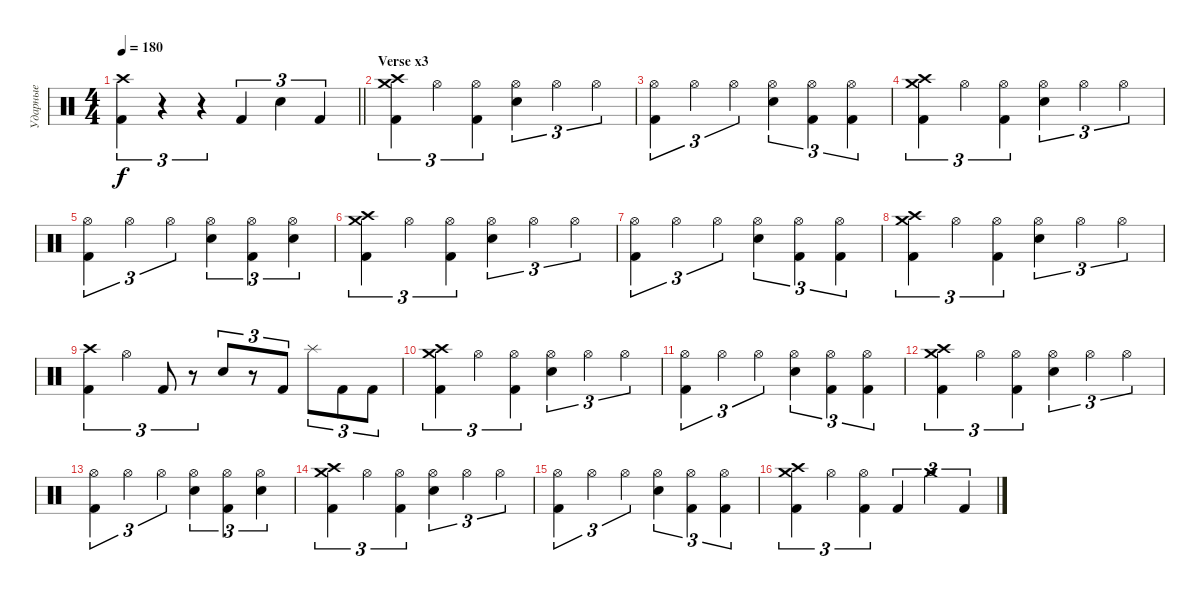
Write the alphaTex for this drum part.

\track ("Ударные" "Ударные") {instrument percussion}
\staff {score}
\articulation defaults
\ts (4 4)
\tempo 180
\clef neutral
\barLineRight lightlight
\ks c
("Crash high (hit)" "Kick (hit) 2").4{tu (3 2) dy f} r.4{tu (3 2)} r.4{tu (3 2)} "Kick (hit) 2".4{tu (3 2)} "Electric Snare (hit)".4{tu (3 2)} "Kick (hit) 2".4{tu (3 2)} |
\section ("" "Verse x3")
("Crash medium (hit)" "Crash high (hit)" "Kick (hit) 2").4{tu (3 2)} "Hi-Hat (open)".4{tu (3 2)} ("Hi-Hat (open)" "Kick (hit) 2").4{tu (3 2)} ("Hi-Hat (open)" "Electric Snare (hit)").4{tu (3 2)} "Hi-Hat (open)".4{tu (3 2)} "Hi-Hat (open)".4{tu (3 2)} |
("Hi-Hat (open)" "Kick (hit) 2").4{tu (3 2)} "Hi-Hat (open)".4{tu (3 2)} "Hi-Hat (open)".4{tu (3 2)} ("Hi-Hat (open)" "Electric Snare (hit)").4{tu (3 2)} ("Hi-Hat (open)" "Kick (hit) 2").4{tu (3 2)} ("Hi-Hat (open)" "Kick (hit) 2").4{tu (3 2)} |
("Crash medium (hit)" "Crash high (hit)" "Kick (hit) 2").4{tu (3 2)} "Hi-Hat (open)".4{tu (3 2)} ("Hi-Hat (open)" "Kick (hit) 2").4{tu (3 2)} ("Hi-Hat (open)" "Electric Snare (hit)").4{tu (3 2)} "Hi-Hat (open)".4{tu (3 2)} "Hi-Hat (open)".4{tu (3 2)} |
("Hi-Hat (open)" "Kick (hit) 2").4{tu (3 2)} "Hi-Hat (open)".4{tu (3 2)} "Hi-Hat (open)".4{tu (3 2)} ("Hi-Hat (open)" "Electric Snare (hit)").4{tu (3 2)} ("Hi-Hat (open)" "Kick (hit) 2").4{tu (3 2)} ("Hi-Hat (open)" "Electric Snare (hit)").4{tu (3 2)} |
("Crash medium (hit)" "Crash high (hit)" "Kick (hit) 2").4{tu (3 2)} "Hi-Hat (open)".4{tu (3 2)} ("Hi-Hat (open)" "Kick (hit) 2").4{tu (3 2)} ("Hi-Hat (open)" "Electric Snare (hit)").4{tu (3 2)} "Hi-Hat (open)".4{tu (3 2)} "Hi-Hat (open)".4{tu (3 2)} |
("Hi-Hat (open)" "Kick (hit) 2").4{tu (3 2)} "Hi-Hat (open)".4{tu (3 2)} "Hi-Hat (open)".4{tu (3 2)} ("Hi-Hat (open)" "Electric Snare (hit)").4{tu (3 2)} ("Hi-Hat (open)" "Kick (hit) 2").4{tu (3 2)} ("Hi-Hat (open)" "Kick (hit) 2").4{tu (3 2)} |
("Crash medium (hit)" "Crash high (hit)" "Kick (hit) 2").4{tu (3 2)} "Hi-Hat (open)".4{tu (3 2)} ("Hi-Hat (open)" "Kick (hit) 2").4{tu (3 2)} ("Hi-Hat (open)" "Electric Snare (hit)").4{tu (3 2)} "Hi-Hat (open)".4{tu (3 2)} "Hi-Hat (open)".4{tu (3 2)} |
("Crash high (hit)" "Kick (hit) 2").4{tu (3 2)} "Hi-Hat (open)".4{tu (3 2)} "Kick (hit) 2".8{tu (3 2)} r.8{tu (3 2)} "Electric Snare (hit)".8{tu (3 2)} r.8{tu (3 2)} "Kick (hit) 2".8{tu (3 2)} "Splash (hit)".8{tu (3 2)} "Kick (hit) 2".8{tu (3 2)} "Kick (hit) 2".8{tu (3 2)} |
("Crash medium (hit)" "Crash high (hit)" "Kick (hit) 2").4{tu (3 2)} "Hi-Hat (open)".4{tu (3 2)} ("Hi-Hat (open)" "Kick (hit) 2").4{tu (3 2)} ("Hi-Hat (open)" "Electric Snare (hit)").4{tu (3 2)} "Hi-Hat (open)".4{tu (3 2)} "Hi-Hat (open)".4{tu (3 2)} |
("Hi-Hat (open)" "Kick (hit) 2").4{tu (3 2)} "Hi-Hat (open)".4{tu (3 2)} "Hi-Hat (open)".4{tu (3 2)} ("Hi-Hat (open)" "Electric Snare (hit)").4{tu (3 2)} ("Hi-Hat (open)" "Kick (hit) 2").4{tu (3 2)} ("Hi-Hat (open)" "Kick (hit) 2").4{tu (3 2)} |
("Crash medium (hit)" "Crash high (hit)" "Kick (hit) 2").4{tu (3 2)} "Hi-Hat (open)".4{tu (3 2)} ("Hi-Hat (open)" "Kick (hit) 2").4{tu (3 2)} ("Hi-Hat (open)" "Electric Snare (hit)").4{tu (3 2)} "Hi-Hat (open)".4{tu (3 2)} "Hi-Hat (open)".4{tu (3 2)} |
("Hi-Hat (open)" "Kick (hit) 2").4{tu (3 2)} "Hi-Hat (open)".4{tu (3 2)} "Hi-Hat (open)".4{tu (3 2)} ("Hi-Hat (open)" "Electric Snare (hit)").4{tu (3 2)} ("Hi-Hat (open)" "Kick (hit) 2").4{tu (3 2)} ("Hi-Hat (open)" "Electric Snare (hit)").4{tu (3 2)} |
("Crash medium (hit)" "Crash high (hit)" "Kick (hit) 2").4{tu (3 2)} "Hi-Hat (open)".4{tu (3 2)} ("Hi-Hat (open)" "Kick (hit) 2").4{tu (3 2)} ("Hi-Hat (open)" "Electric Snare (hit)").4{tu (3 2)} "Hi-Hat (open)".4{tu (3 2)} "Hi-Hat (open)".4{tu (3 2)} |
("Hi-Hat (open)" "Kick (hit) 2").4{tu (3 2)} "Hi-Hat (open)".4{tu (3 2)} "Hi-Hat (open)".4{tu (3 2)} ("Hi-Hat (open)" "Electric Snare (hit)").4{tu (3 2)} ("Hi-Hat (open)" "Kick (hit) 2").4{tu (3 2)} ("Hi-Hat (open)" "Kick (hit) 2").4{tu (3 2)} |
("Crash medium (hit)" "Crash high (hit)" "Kick (hit) 2").4{tu (3 2)} "Hi-Hat (open)".4{tu (3 2)} ("Hi-Hat (open)" "Kick (hit) 2").4{tu (3 2)} "Kick (hit) 2".4{tu (3 2)} "Crash medium (hit)".4{tu (3 2)} "Kick (hit) 2".4{tu (3 2)}
